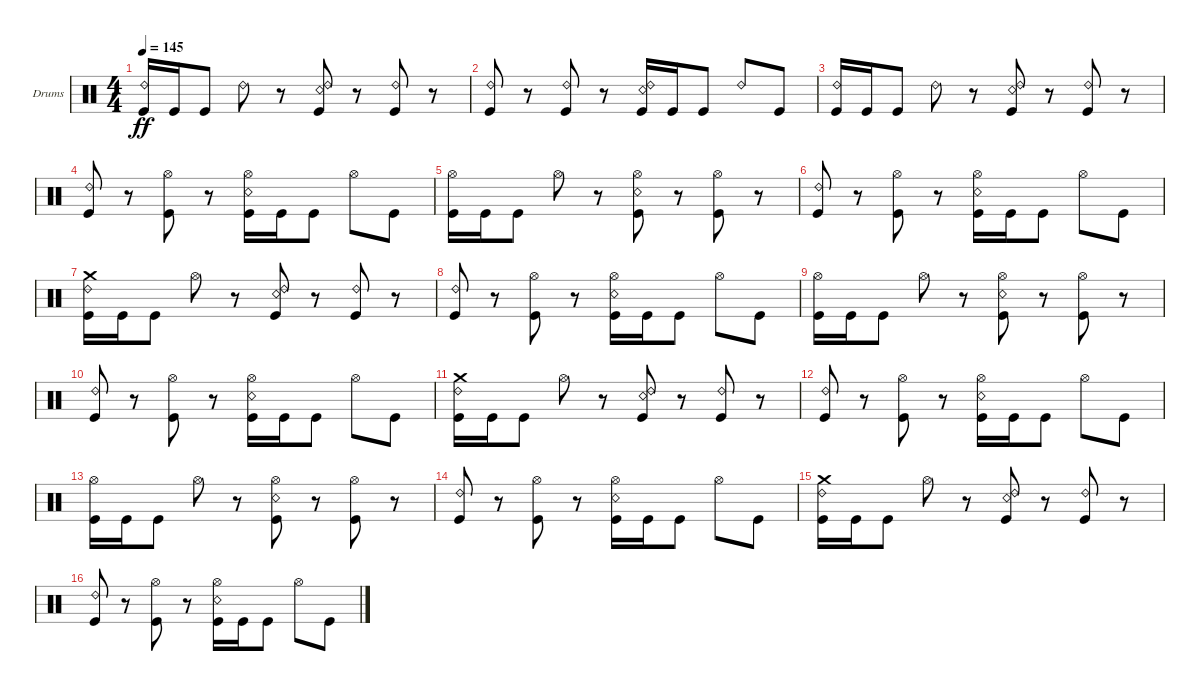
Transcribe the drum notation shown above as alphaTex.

\bracketExtendMode groupsimilarinstruments
\firstSystemTrackNameOrientation horizontal
\otherSystemsTrackNameOrientation horizontal
\track ("Kaleb - Drums" "Drums") {instrument percussion}
\staff {score}
\articulation defaults
\ts (4 4)
\tempo 145
\clef neutral
\ks c
("Kick (hit)" "Ride (bell) 2").16{dy ff} "Kick (hit)".16 "Kick (hit)".8 "Ride (bell) 2".8 r.8 ("Kick (hit)" "Ride (bell) 2" "Snare (rim shot)").8 r.8 ("Kick (hit)" "Ride (bell) 2").8 r.8 |
("Kick (hit)" "Ride (bell) 2").8 r.8 ("Kick (hit)" "Ride (bell) 2").8 r.8 ("Kick (hit)" "Ride (bell) 2" "Snare (rim shot)").16 "Kick (hit)".16 "Kick (hit)".8 "Ride (bell) 2".8 "Kick (hit)".8 |
("Kick (hit)" "Ride (bell) 2").16 "Kick (hit)".16 "Kick (hit)".8 "Ride (bell) 2".8 r.8 ("Kick (hit)" "Ride (bell) 2" "Snare (rim shot)").8 r.8 ("Kick (hit)" "Ride (bell) 2").8 r.8 |
("Kick (hit)" "Ride (bell) 2").8 r.8 ("Kick (hit)" "Hi-Hat (open)").8 r.8 ("Kick (hit)" "Snare (rim shot)" "Hi-Hat (open)").16 "Kick (hit)".16 "Kick (hit)".8 "Hi-Hat (open)".8 "Kick (hit)".8 |
("Kick (hit)" "Hi-Hat (open)").16 "Kick (hit)".16 "Kick (hit)".8 "Hi-Hat (open)".8 r.8 ("Kick (hit)" "Snare (rim shot)" "Hi-Hat (open)").8 r.8 ("Kick (hit)" "Hi-Hat (open)").8 r.8 |
("Kick (hit)" "Ride (bell) 2").8 r.8 ("Kick (hit)" "Hi-Hat (open)").8 r.8 ("Kick (hit)" "Snare (rim shot)" "Hi-Hat (open)").16 "Kick (hit)".16 "Kick (hit)".8 "Hi-Hat (open)".8 "Kick (hit)".8 |
("Kick (hit)" "Ride (bell) 2" "Crash medium (hit)").16 "Kick (hit)".16 "Kick (hit)".8 "Hi-Hat (open)".8 r.8 ("Kick (hit)" "Ride (bell) 2" "Snare (rim shot)").8 r.8 ("Kick (hit)" "Ride (bell) 2").8 r.8 |
("Kick (hit)" "Ride (bell) 2").8 r.8 ("Kick (hit)" "Hi-Hat (open)").8 r.8 ("Kick (hit)" "Snare (rim shot)" "Hi-Hat (open)").16 "Kick (hit)".16 "Kick (hit)".8 "Hi-Hat (open)".8 "Kick (hit)".8 |
("Kick (hit)" "Hi-Hat (open)").16 "Kick (hit)".16 "Kick (hit)".8 "Hi-Hat (open)".8 r.8 ("Kick (hit)" "Snare (rim shot)" "Hi-Hat (open)").8 r.8 ("Kick (hit)" "Hi-Hat (open)").8 r.8 |
("Kick (hit)" "Ride (bell) 2").8 r.8 ("Kick (hit)" "Hi-Hat (open)").8 r.8 ("Kick (hit)" "Snare (rim shot)" "Hi-Hat (open)").16 "Kick (hit)".16 "Kick (hit)".8 "Hi-Hat (open)".8 "Kick (hit)".8 |
("Kick (hit)" "Ride (bell) 2" "Crash medium (hit)").16 "Kick (hit)".16 "Kick (hit)".8 "Hi-Hat (open)".8 r.8 ("Kick (hit)" "Ride (bell) 2" "Snare (rim shot)").8 r.8 ("Kick (hit)" "Ride (bell) 2").8 r.8 |
("Kick (hit)" "Ride (bell) 2").8 r.8 ("Kick (hit)" "Hi-Hat (open)").8 r.8 ("Kick (hit)" "Snare (rim shot)" "Hi-Hat (open)").16 "Kick (hit)".16 "Kick (hit)".8 "Hi-Hat (open)".8 "Kick (hit)".8 |
("Kick (hit)" "Hi-Hat (open)").16 "Kick (hit)".16 "Kick (hit)".8 "Hi-Hat (open)".8 r.8 ("Kick (hit)" "Snare (rim shot)" "Hi-Hat (open)").8 r.8 ("Kick (hit)" "Hi-Hat (open)").8 r.8 |
("Kick (hit)" "Ride (bell) 2").8 r.8 ("Kick (hit)" "Hi-Hat (open)").8 r.8 ("Kick (hit)" "Snare (rim shot)" "Hi-Hat (open)").16 "Kick (hit)".16 "Kick (hit)".8 "Hi-Hat (open)".8 "Kick (hit)".8 |
("Kick (hit)" "Ride (bell) 2" "Crash medium (hit)").16 "Kick (hit)".16 "Kick (hit)".8 "Hi-Hat (open)".8 r.8 ("Kick (hit)" "Ride (bell) 2" "Snare (rim shot)").8 r.8 ("Kick (hit)" "Ride (bell) 2").8 r.8 |
("Kick (hit)" "Ride (bell) 2").8 r.8 ("Kick (hit)" "Hi-Hat (open)").8 r.8 ("Kick (hit)" "Snare (rim shot)" "Hi-Hat (open)").16 "Kick (hit)".16 "Kick (hit)".8 "Hi-Hat (open)".8 "Kick (hit)".8
